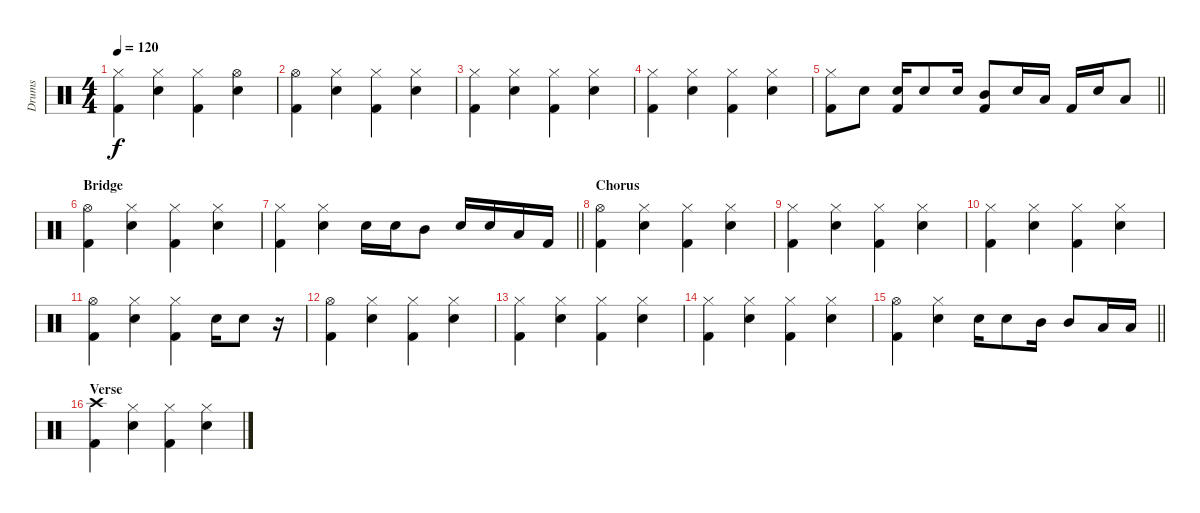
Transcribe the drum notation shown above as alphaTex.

\track ("Drums" "Drums") {instrument percussion}
\staff {score}
\articulation defaults
\ts (4 4)
\tempo 120
\clef neutral
\ks c
("Hi-Hat (closed)" "Kick (hit) 2").4{dy f} ("Hi-Hat (closed)" "Snare (hit) 2").4 ("Hi-Hat (closed)" "Kick (hit) 2").4 ("Hi-Hat (open)" "Snare (hit) 2").4 |
("Hi-Hat (open)" "Kick (hit) 2").4 ("Hi-Hat (closed)" "Snare (hit) 2").4 ("Hi-Hat (closed)" "Kick (hit) 2").4 ("Hi-Hat (closed)" "Snare (hit) 2").4 |
("Hi-Hat (closed)" "Kick (hit) 2").4 ("Hi-Hat (closed)" "Snare (hit) 2").4 ("Hi-Hat (closed)" "Kick (hit) 2").4 ("Hi-Hat (closed)" "Snare (hit) 2").4 |
("Hi-Hat (closed)" "Kick (hit) 2").4 ("Hi-Hat (closed)" "Snare (hit) 2").4 ("Hi-Hat (closed)" "Kick (hit) 2").4 ("Hi-Hat (closed)" "Snare (hit) 2").4 |
\barLineRight lightlight
("Hi-Hat (closed)" "Kick (hit) 2").8 "Snare (hit) 2".8 ("Kick (hit) 2" "Snare (hit) 2").16 "Snare (hit) 2".8 "Snare (hit) 2".16 ("Kick (hit) 2" "Mid Tom (hit)").8 "Snare (hit) 2".16 "Low Tom (hit)".16 "Kick (hit) 2".16 "Snare (hit) 2".16 "Low Floor Tom (hit)".8 |
\section ("" "Bridge")
("Hi-Hat (open)" "Kick (hit) 2").4 ("Hi-Hat (closed)" "Snare (hit) 2").4 ("Hi-Hat (closed)" "Kick (hit) 2").4 ("Hi-Hat (closed)" "Snare (hit) 2").4 |
\barLineRight lightlight
("Hi-Hat (closed)" "Kick (hit) 2").4 ("Hi-Hat (closed)" "Snare (hit) 2").4 "Snare (hit) 2".16 "Snare (hit) 2".16 "Mid Tom (hit)".8 "Snare (hit) 2".16 "Snare (hit) 2".16 "Low Tom (hit)".16 "Kick (hit) 2".16 |
\section ("" "Chorus")
("Hi-Hat (open)" "Kick (hit) 2").4 ("Hi-Hat (closed)" "Snare (hit) 2").4 ("Hi-Hat (closed)" "Kick (hit) 2").4 ("Hi-Hat (closed)" "Snare (hit) 2").4 |
("Hi-Hat (closed)" "Kick (hit) 2").4 ("Hi-Hat (closed)" "Snare (hit) 2").4 ("Hi-Hat (closed)" "Kick (hit) 2").4 ("Hi-Hat (closed)" "Snare (hit) 2").4 |
("Hi-Hat (closed)" "Kick (hit) 2").4 ("Hi-Hat (closed)" "Snare (hit) 2").4 ("Hi-Hat (closed)" "Kick (hit) 2").4 ("Hi-Hat (closed)" "Snare (hit) 2").4 |
("Hi-Hat (open)" "Kick (hit) 2").4 ("Hi-Hat (closed)" "Snare (hit) 2").4 ("Hi-Hat (closed)" "Kick (hit) 2").4 "Snare (hit) 2".16 "Snare (hit) 2".8 r.16 |
("Hi-Hat (open)" "Kick (hit) 2").4 ("Hi-Hat (closed)" "Snare (hit) 2").4 ("Hi-Hat (closed)" "Kick (hit) 2").4 ("Hi-Hat (closed)" "Snare (hit) 2").4 |
("Hi-Hat (closed)" "Kick (hit) 2").4 ("Hi-Hat (closed)" "Snare (hit) 2").4 ("Hi-Hat (closed)" "Kick (hit) 2").4 ("Hi-Hat (closed)" "Snare (hit) 2").4 |
("Hi-Hat (closed)" "Kick (hit) 2").4 ("Hi-Hat (closed)" "Snare (hit) 2").4 ("Hi-Hat (closed)" "Kick (hit) 2").4 ("Hi-Hat (closed)" "Snare (hit) 2").4 |
\barLineRight lightlight
("Hi-Hat (open)" "Kick (hit) 2").4 ("Hi-Hat (closed)" "Snare (hit) 2").4 "Snare (hit) 2".16 "Snare (hit) 2".8 "Mid Tom (hit)".16 "Mid Tom (hit)".8 "Low Tom (hit)".16 "Low Tom (hit)".16 |
\section ("" "Verse")
("Crash high (hit)" "Kick (hit) 2").4 ("Hi-Hat (closed)" "Snare (hit) 2").4 ("Hi-Hat (closed)" "Kick (hit) 2").4 ("Hi-Hat (closed)" "Snare (hit) 2").4
